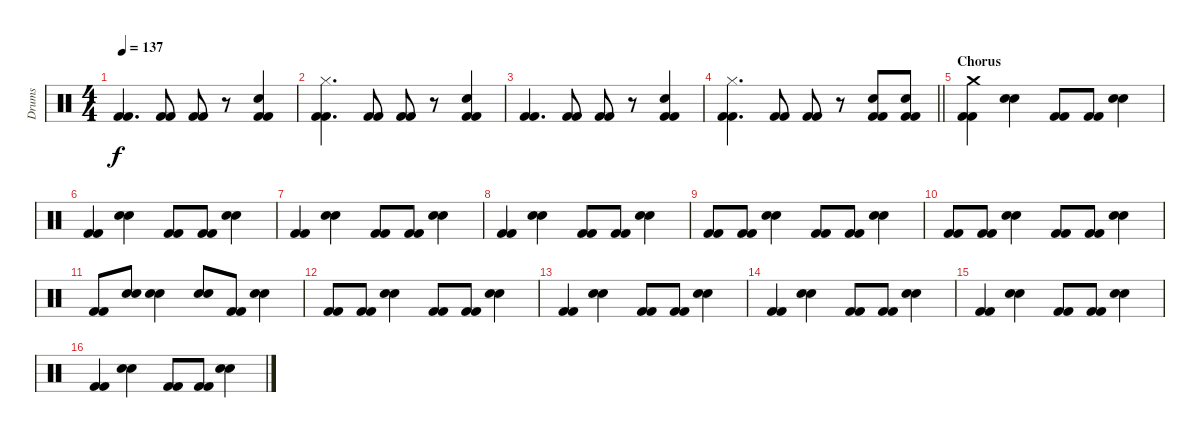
\track ("Drums" "Drums") {instrument percussion}
\staff {score}
\articulation defaults
\ts (4 4)
\tempo 137
\clef neutral
\ks c
("Kick (hit) 2" "Kick (hit) 2").4{d dy f} ("Kick (hit) 2" "Kick (hit) 2").8 ("Kick (hit) 2" "Kick (hit) 2").8 r.8 ("Kick (hit) 2" "Kick (hit) 2" "Electric Snare (hit)").4 |
("Kick (hit) 2" "Kick (hit) 2" "Hi-Hat (closed)").4{d} ("Kick (hit) 2" "Kick (hit) 2").8 ("Kick (hit) 2" "Kick (hit) 2").8 r.8 ("Kick (hit) 2" "Kick (hit) 2" "Electric Snare (hit)").4 |
("Kick (hit) 2" "Kick (hit) 2").4{d} ("Kick (hit) 2" "Kick (hit) 2").8 ("Kick (hit) 2" "Kick (hit) 2").8 r.8 ("Kick (hit) 2" "Kick (hit) 2" "Electric Snare (hit)").4 |
\barLineRight lightlight
("Kick (hit) 2" "Kick (hit) 2" "Hi-Hat (closed)").4{d} ("Kick (hit) 2" "Kick (hit) 2").8 ("Kick (hit) 2" "Kick (hit) 2").8 r.8 ("Kick (hit) 2" "Kick (hit) 2" "Electric Snare (hit)").8 ("Kick (hit) 2" "Kick (hit) 2" "Electric Snare (hit)").8 |
\section ("" "Chorus")
("Kick (hit) 2" "Kick (hit) 2" "Crash medium (hit)").4 ("Electric Snare (hit)" "Electric Snare (hit)").4 ("Kick (hit) 2" "Kick (hit) 2").8 ("Kick (hit) 2" "Kick (hit) 2").8 ("Electric Snare (hit)" "Electric Snare (hit)").4 |
("Kick (hit) 2" "Kick (hit) 2").4 ("Electric Snare (hit)" "Electric Snare (hit)").4 ("Kick (hit) 2" "Kick (hit) 2").8 ("Kick (hit) 2" "Kick (hit) 2").8 ("Electric Snare (hit)" "Electric Snare (hit)").4 |
("Kick (hit) 2" "Kick (hit) 2").4 ("Electric Snare (hit)" "Electric Snare (hit)").4 ("Kick (hit) 2" "Kick (hit) 2").8 ("Kick (hit) 2" "Kick (hit) 2").8 ("Electric Snare (hit)" "Electric Snare (hit)").4 |
("Kick (hit) 2" "Kick (hit) 2").4 ("Electric Snare (hit)" "Electric Snare (hit)").4 ("Kick (hit) 2" "Kick (hit) 2").8 ("Kick (hit) 2" "Kick (hit) 2").8 ("Electric Snare (hit)" "Electric Snare (hit)").4 |
("Kick (hit) 2" "Kick (hit) 2").8 ("Kick (hit) 2" "Kick (hit) 2").8 ("Electric Snare (hit)" "Electric Snare (hit)").4 ("Kick (hit) 2" "Kick (hit) 2").8 ("Kick (hit) 2" "Kick (hit) 2").8 ("Electric Snare (hit)" "Electric Snare (hit)").4 |
("Kick (hit) 2" "Kick (hit) 2").8 ("Kick (hit) 2" "Kick (hit) 2").8 ("Electric Snare (hit)" "Electric Snare (hit)").4 ("Kick (hit) 2" "Kick (hit) 2").8 ("Kick (hit) 2" "Kick (hit) 2").8 ("Electric Snare (hit)" "Electric Snare (hit)").4 |
("Kick (hit) 2" "Kick (hit) 2").8 ("Electric Snare (hit)" "Electric Snare (hit)").8 ("Electric Snare (hit)" "Electric Snare (hit)").4 ("Electric Snare (hit)" "Electric Snare (hit)").8 ("Kick (hit) 2" "Kick (hit) 2").8 ("Electric Snare (hit)" "Electric Snare (hit)").4 |
("Kick (hit) 2" "Kick (hit) 2").8 ("Kick (hit) 2" "Kick (hit) 2").8 ("Electric Snare (hit)" "Electric Snare (hit)").4 ("Kick (hit) 2" "Kick (hit) 2").8 ("Kick (hit) 2" "Kick (hit) 2").8 ("Electric Snare (hit)" "Electric Snare (hit)").4 |
("Kick (hit) 2" "Kick (hit) 2").4 ("Electric Snare (hit)" "Electric Snare (hit)").4 ("Kick (hit) 2" "Kick (hit) 2").8 ("Kick (hit) 2" "Kick (hit) 2").8 ("Electric Snare (hit)" "Electric Snare (hit)").4 |
("Kick (hit) 2" "Kick (hit) 2").4 ("Electric Snare (hit)" "Electric Snare (hit)").4 ("Kick (hit) 2" "Kick (hit) 2").8 ("Kick (hit) 2" "Kick (hit) 2").8 ("Electric Snare (hit)" "Electric Snare (hit)").4 |
("Kick (hit) 2" "Kick (hit) 2").4 ("Electric Snare (hit)" "Electric Snare (hit)").4 ("Kick (hit) 2" "Kick (hit) 2").8 ("Kick (hit) 2" "Kick (hit) 2").8 ("Electric Snare (hit)" "Electric Snare (hit)").4 |
("Kick (hit) 2" "Kick (hit) 2").4 ("Electric Snare (hit)" "Electric Snare (hit)").4 ("Kick (hit) 2" "Kick (hit) 2").8 ("Kick (hit) 2" "Kick (hit) 2").8 ("Electric Snare (hit)" "Electric Snare (hit)").4
